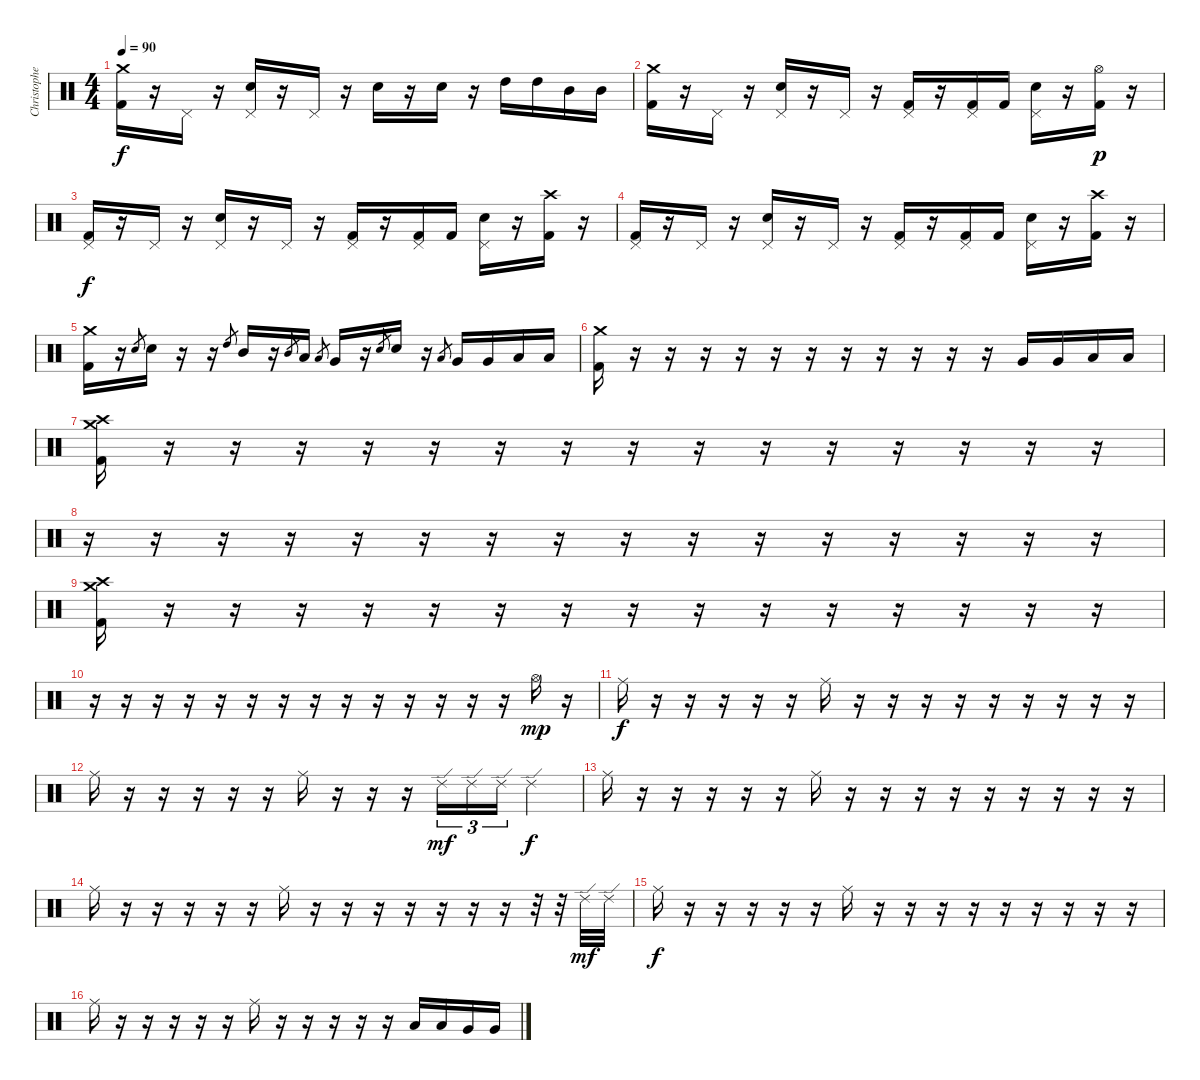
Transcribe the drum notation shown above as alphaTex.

\track ("Christopher Kinder" "Christophe") {instrument percussion}
\staff {score}
\articulation defaults
\ts (4 4)
\tempo 90
\clef neutral
\ks c
("Crash medium (hit)" "Kick (hit) 2").16{dy f} r.16 "Pedal Hi-Hat (hit)".16 r.16 ("Pedal Hi-Hat (hit)" "Electric Snare (hit)").16 r.16 "Pedal Hi-Hat (hit)".16 r.16 "Electric Snare (hit)".16 r.16 "Electric Snare (hit)".16 r.16 "High Tom (hit)".16 "High Tom (hit)".16 "Mid Tom (hit)".16 "Mid Tom (hit)".16 |
("Crash medium (hit)" "Kick (hit) 2").16 r.16 "Pedal Hi-Hat (hit)".16 r.16 ("Pedal Hi-Hat (hit)" "Electric Snare (hit)").16 r.16 "Pedal Hi-Hat (hit)".16 r.16 ("Pedal Hi-Hat (hit)" "Kick (hit) 2").16 r.16 ("Pedal Hi-Hat (hit)" "Kick (hit) 2").16 "Kick (hit) 2".16 ("Pedal Hi-Hat (hit)" "Electric Snare (hit)").16 r.16 ("Hi-Hat (open)" "Kick (hit) 2").16{dy p} r.16 |
("Pedal Hi-Hat (hit)" "Kick (hit) 2").16{dy f} r.16 "Pedal Hi-Hat (hit)".16 r.16 ("Pedal Hi-Hat (hit)" "Electric Snare (hit)").16 r.16 "Pedal Hi-Hat (hit)".16 r.16 ("Pedal Hi-Hat (hit)" "Kick (hit) 2").16 r.16 ("Pedal Hi-Hat (hit)" "Kick (hit) 2").16 "Kick (hit) 2".16 ("Pedal Hi-Hat (hit)" "Electric Snare (hit)").16 r.16 ("Crash high (hit)" "Kick (hit) 2").16 r.16 |
("Pedal Hi-Hat (hit)" "Kick (hit) 2").16 r.16 "Pedal Hi-Hat (hit)".16 r.16 ("Pedal Hi-Hat (hit)" "Electric Snare (hit)").16 r.16 "Pedal Hi-Hat (hit)".16 r.16 ("Pedal Hi-Hat (hit)" "Kick (hit) 2").16 r.16 ("Pedal Hi-Hat (hit)" "Kick (hit) 2").16 "Kick (hit) 2".16 ("Pedal Hi-Hat (hit)" "Electric Snare (hit)").16 r.16 ("Crash high (hit)" "Kick (hit) 2").16 r.16 |
("Crash medium (hit)" "Kick (hit) 2").16 r.16 "Electric Snare (hit)".8{gr} "Electric Snare (hit)".16 r.16 r.16 "High Tom (hit)".8{gr} "Mid Tom (hit)".16 r.16 "Mid Tom (hit)".8{gr} "Low Tom (hit)".16 "Low Tom (hit)".8{gr} "Very Low Tom (hit)".16 r.16 "Electric Snare (hit)".8{gr} "Electric Snare (hit)".16 r.16 "Low Tom (hit)".8{gr} "Very Low Tom (hit)".16 "Very Low Tom (hit)".16 "Low Floor Tom (hit)".16 "Low Floor Tom (hit)".16 |
("Crash medium (hit)" "Kick (hit) 2").16 r.16 r.16 r.16 r.16 r.16 r.16 r.16 r.16 r.16 r.16 r.16 "Very Low Tom (hit)".16 "Very Low Tom (hit)".16 "Low Floor Tom (hit)".16 "Low Floor Tom (hit)".16 |
("Crash medium (hit)" "Crash high (hit)" "Kick (hit) 2").16 r.16 r.16 r.16 r.16 r.16 r.16 r.16 r.16 r.16 r.16 r.16 r.16 r.16 r.16 r.16 |
r.16 r.16 r.16 r.16 r.16 r.16 r.16 r.16 r.16 r.16 r.16 r.16 r.16 r.16 r.16 r.16 |
("Crash medium (hit)" "Crash high (hit)" "Kick (hit) 2").16 r.16 r.16 r.16 r.16 r.16 r.16 r.16 r.16 r.16 r.16 r.16 r.16 r.16 r.16 r.16 |
r.16 r.16 r.16 r.16 r.16 r.16 r.16 r.16 r.16 r.16 r.16 r.16 r.16 r.16 "Hi-Hat (open)".16{dy mp} r.16 |
"Ride (middle)".16{dy f} r.16 r.16 r.16 r.16 r.16 "Ride (middle)".16 r.16 r.16 r.16 r.16 r.16 r.16 r.16 r.16 r.16 |
"Ride (middle)".16 r.16 r.16 r.16 r.16 r.16 "Ride (middle)".16 r.16 r.16 r.16 "Ride (edge) 2".16{tu (3 2) dy mf} "Ride (edge) 2".16{tu (3 2)} "Ride (edge) 2".16{tu (3 2)} "Ride (edge) 2".4{dy f} |
"Ride (middle)".16 r.16 r.16 r.16 r.16 r.16 "Ride (middle)".16 r.16 r.16 r.16 r.16 r.16 r.16 r.16 r.16 r.16 |
"Ride (middle)".16 r.16 r.16 r.16 r.16 r.16 "Ride (middle)".16 r.16 r.16 r.16 r.16 r.16 r.16 r.16 r.32 r.32 "Ride (edge) 2".32{dy mf} "Ride (edge) 2".32 |
"Ride (middle)".16{dy f} r.16 r.16 r.16 r.16 r.16 "Ride (middle)".16 r.16 r.16 r.16 r.16 r.16 r.16 r.16 r.16 r.16 |
"Ride (middle)".16 r.16 r.16 r.16 r.16 r.16 "Ride (middle)".16 r.16 r.16 r.16 r.16 r.16 "Low Tom (hit)".16 "Low Tom (hit)".16 "Very Low Tom (hit)".16 "Very Low Tom (hit)".16
